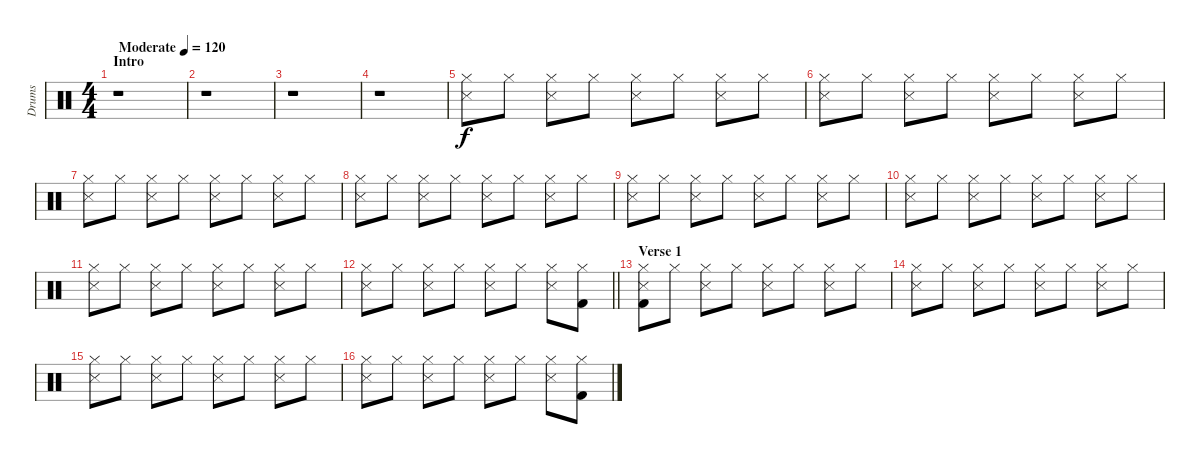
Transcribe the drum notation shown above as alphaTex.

\track ("Drums" "Drums") {instrument percussion}
\staff {score}
\articulation defaults
\ts (4 4)
\section ("" "Intro")
\tempo (120 "Moderate")
\clef neutral
\ks c
r.1{dy f} |
r.1 |
r.1 |
r.1 |
("Hi-Hat (closed)" "Snare (side stick) 3").8 "Hi-Hat (closed)".8 ("Hi-Hat (closed)" "Snare (side stick) 3").8 "Hi-Hat (closed)".8 ("Hi-Hat (closed)" "Snare (side stick) 3").8 "Hi-Hat (closed)".8 ("Hi-Hat (closed)" "Snare (side stick) 3").8 "Hi-Hat (closed)".8 |
("Hi-Hat (closed)" "Snare (side stick) 3").8 "Hi-Hat (closed)".8 ("Hi-Hat (closed)" "Snare (side stick) 3").8 "Hi-Hat (closed)".8 ("Hi-Hat (closed)" "Snare (side stick) 3").8 "Hi-Hat (closed)".8 ("Hi-Hat (closed)" "Snare (side stick) 3").8 "Hi-Hat (closed)".8 |
("Hi-Hat (closed)" "Snare (side stick) 3").8 "Hi-Hat (closed)".8 ("Hi-Hat (closed)" "Snare (side stick) 3").8 "Hi-Hat (closed)".8 ("Hi-Hat (closed)" "Snare (side stick) 3").8 "Hi-Hat (closed)".8 ("Hi-Hat (closed)" "Snare (side stick) 3").8 "Hi-Hat (closed)".8 |
("Hi-Hat (closed)" "Snare (side stick) 3").8 "Hi-Hat (closed)".8 ("Hi-Hat (closed)" "Snare (side stick) 3").8 "Hi-Hat (closed)".8 ("Hi-Hat (closed)" "Snare (side stick) 3").8 "Hi-Hat (closed)".8 ("Hi-Hat (closed)" "Snare (side stick) 3").8 "Hi-Hat (closed)".8 |
("Hi-Hat (closed)" "Snare (side stick) 3").8 "Hi-Hat (closed)".8 ("Hi-Hat (closed)" "Snare (side stick) 3").8 "Hi-Hat (closed)".8 ("Hi-Hat (closed)" "Snare (side stick) 3").8 "Hi-Hat (closed)".8 ("Hi-Hat (closed)" "Snare (side stick) 3").8 "Hi-Hat (closed)".8 |
("Hi-Hat (closed)" "Snare (side stick) 3").8 "Hi-Hat (closed)".8 ("Hi-Hat (closed)" "Snare (side stick) 3").8 "Hi-Hat (closed)".8 ("Hi-Hat (closed)" "Snare (side stick) 3").8 "Hi-Hat (closed)".8 ("Hi-Hat (closed)" "Snare (side stick) 3").8 "Hi-Hat (closed)".8 |
("Hi-Hat (closed)" "Snare (side stick) 3").8 "Hi-Hat (closed)".8 ("Hi-Hat (closed)" "Snare (side stick) 3").8 "Hi-Hat (closed)".8 ("Hi-Hat (closed)" "Snare (side stick) 3").8 "Hi-Hat (closed)".8 ("Hi-Hat (closed)" "Snare (side stick) 3").8 "Hi-Hat (closed)".8 |
\barLineRight lightlight
("Hi-Hat (closed)" "Snare (side stick) 3").8 "Hi-Hat (closed)".8 ("Hi-Hat (closed)" "Snare (side stick) 3").8 "Hi-Hat (closed)".8 ("Hi-Hat (closed)" "Snare (side stick) 3").8 "Hi-Hat (closed)".8 ("Hi-Hat (closed)" "Snare (side stick) 3").8 ("Hi-Hat (closed)" "Kick (hit) 2").8 |
\section ("" "Verse 1")
("Hi-Hat (closed)" "Snare (side stick) 3" "Kick (hit) 2").8 "Hi-Hat (closed)".8 ("Hi-Hat (closed)" "Snare (side stick) 3").8 "Hi-Hat (closed)".8 ("Hi-Hat (closed)" "Snare (side stick) 3").8 "Hi-Hat (closed)".8 ("Hi-Hat (closed)" "Snare (side stick) 3").8 "Hi-Hat (closed)".8 |
("Hi-Hat (closed)" "Snare (side stick) 3").8 "Hi-Hat (closed)".8 ("Hi-Hat (closed)" "Snare (side stick) 3").8 "Hi-Hat (closed)".8 ("Hi-Hat (closed)" "Snare (side stick) 3").8 "Hi-Hat (closed)".8 ("Hi-Hat (closed)" "Snare (side stick) 3").8 "Hi-Hat (closed)".8 |
("Hi-Hat (closed)" "Snare (side stick) 3").8 "Hi-Hat (closed)".8 ("Hi-Hat (closed)" "Snare (side stick) 3").8 "Hi-Hat (closed)".8 ("Hi-Hat (closed)" "Snare (side stick) 3").8 "Hi-Hat (closed)".8 ("Hi-Hat (closed)" "Snare (side stick) 3").8 "Hi-Hat (closed)".8 |
("Hi-Hat (closed)" "Snare (side stick) 3").8 "Hi-Hat (closed)".8 ("Hi-Hat (closed)" "Snare (side stick) 3").8 "Hi-Hat (closed)".8 ("Hi-Hat (closed)" "Snare (side stick) 3").8 "Hi-Hat (closed)".8 ("Hi-Hat (closed)" "Snare (side stick) 3").8 ("Hi-Hat (closed)" "Kick (hit) 2").8
